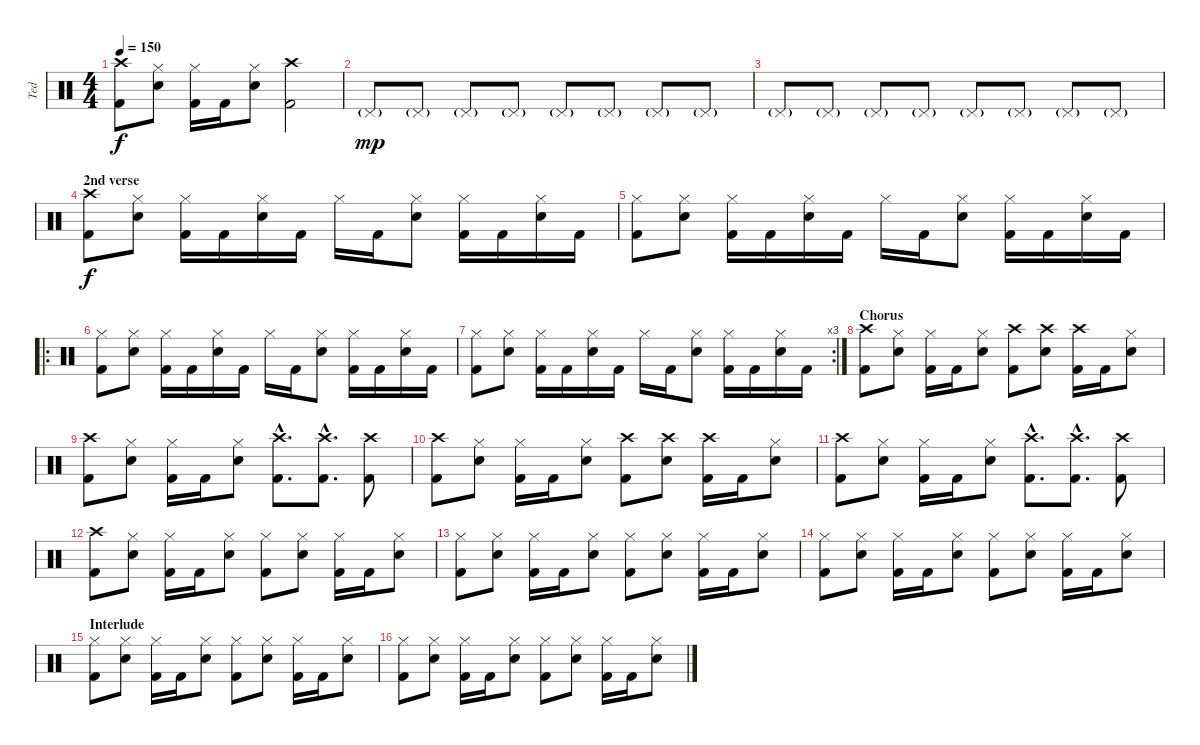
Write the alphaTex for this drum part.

\track ("Ted" "Ted") {instrument percussion}
\staff {score}
\articulation defaults
\ts (4 4)
\tempo 150
\clef neutral
\ks c
("Crash high (hit)" "Kick (hit) 2").8{dy f} ("Hi-Hat (closed)" "Electric Snare (hit)").8 ("Hi-Hat (closed)" "Kick (hit) 2").16 "Kick (hit) 2".16 ("Hi-Hat (closed)" "Electric Snare (hit)").8 ("Crash high (hit)" "Kick (hit) 2").2 |
"Pedal Hi-Hat (hit)"{g}.8{dy mp} "Pedal Hi-Hat (hit)"{g}.8 "Pedal Hi-Hat (hit)"{g}.8 "Pedal Hi-Hat (hit)"{g}.8 "Pedal Hi-Hat (hit)"{g}.8 "Pedal Hi-Hat (hit)"{g}.8 "Pedal Hi-Hat (hit)"{g}.8 "Pedal Hi-Hat (hit)"{g}.8 |
"Pedal Hi-Hat (hit)"{g}.8 "Pedal Hi-Hat (hit)"{g}.8 "Pedal Hi-Hat (hit)"{g}.8 "Pedal Hi-Hat (hit)"{g}.8 "Pedal Hi-Hat (hit)"{g}.8 "Pedal Hi-Hat (hit)"{g}.8 "Pedal Hi-Hat (hit)"{g}.8 "Pedal Hi-Hat (hit)"{g}.8 |
\section ("" "2nd verse")
("Crash high (hit)" "Kick (hit) 2").8{dy f} ("Hi-Hat (closed)" "Electric Snare (hit)").8 ("Hi-Hat (closed)" "Kick (hit) 2").16 "Kick (hit) 2".16 ("Hi-Hat (closed)" "Electric Snare (hit)").16 "Kick (hit) 2".16 "Hi-Hat (closed)".16 "Kick (hit) 2".16 ("Hi-Hat (closed)" "Electric Snare (hit)").8 ("Hi-Hat (closed)" "Kick (hit) 2").16 "Kick (hit) 2".16 ("Hi-Hat (closed)" "Electric Snare (hit)").16 "Kick (hit) 2".16 |
("Hi-Hat (closed)" "Kick (hit) 2").8 ("Hi-Hat (closed)" "Electric Snare (hit)").8 ("Hi-Hat (closed)" "Kick (hit) 2").16 "Kick (hit) 2".16 ("Hi-Hat (closed)" "Electric Snare (hit)").16 "Kick (hit) 2".16 "Hi-Hat (closed)".16 "Kick (hit) 2".16 ("Hi-Hat (closed)" "Electric Snare (hit)").8 ("Hi-Hat (closed)" "Kick (hit) 2").16 "Kick (hit) 2".16 ("Hi-Hat (closed)" "Electric Snare (hit)").16 "Kick (hit) 2".16 |
\ro
("Hi-Hat (closed)" "Kick (hit) 2").8 ("Hi-Hat (closed)" "Electric Snare (hit)").8 ("Hi-Hat (closed)" "Kick (hit) 2").16 "Kick (hit) 2".16 ("Hi-Hat (closed)" "Electric Snare (hit)").16 "Kick (hit) 2".16 "Hi-Hat (closed)".16 "Kick (hit) 2".16 ("Hi-Hat (closed)" "Electric Snare (hit)").8 ("Hi-Hat (closed)" "Kick (hit) 2").16 "Kick (hit) 2".16 ("Hi-Hat (closed)" "Electric Snare (hit)").16 "Kick (hit) 2".16 |
\rc 3
("Hi-Hat (closed)" "Kick (hit) 2").8 ("Hi-Hat (closed)" "Electric Snare (hit)").8 ("Hi-Hat (closed)" "Kick (hit) 2").16 "Kick (hit) 2".16 ("Hi-Hat (closed)" "Electric Snare (hit)").16 "Kick (hit) 2".16 "Hi-Hat (closed)".16 "Kick (hit) 2".16 ("Hi-Hat (closed)" "Electric Snare (hit)").8 ("Hi-Hat (closed)" "Kick (hit) 2").16 "Kick (hit) 2".16 ("Hi-Hat (closed)" "Electric Snare (hit)").16 "Kick (hit) 2".16 |
\section ("" "Chorus")
("Crash high (hit)" "Kick (hit) 2").8 ("Hi-Hat (closed)" "Electric Snare (hit)").8 ("Hi-Hat (closed)" "Kick (hit) 2").16 "Kick (hit) 2".16 ("Hi-Hat (closed)" "Electric Snare (hit)").8 ("Crash high (hit)" "Kick (hit) 2").8 ("Crash high (hit)" "Electric Snare (hit)").8 ("Crash high (hit)" "Kick (hit) 2").16 "Kick (hit) 2".16 ("Hi-Hat (closed)" "Electric Snare (hit)").8 |
("Crash high (hit)" "Kick (hit) 2").8 ("Hi-Hat (closed)" "Electric Snare (hit)").8 ("Hi-Hat (closed)" "Kick (hit) 2").16 "Kick (hit) 2".16 ("Hi-Hat (closed)" "Electric Snare (hit)").8 ("Crash high (hit)"{hac} "Kick (hit) 2"{hac}).8{d} ("Crash high (hit)"{hac} "Kick (hit) 2"{hac}).8{d} ("Crash high (hit)" "Kick (hit) 2").8 |
("Crash high (hit)" "Kick (hit) 2").8 ("Hi-Hat (closed)" "Electric Snare (hit)").8 ("Hi-Hat (closed)" "Kick (hit) 2").16 "Kick (hit) 2".16 ("Hi-Hat (closed)" "Electric Snare (hit)").8 ("Crash high (hit)" "Kick (hit) 2").8 ("Crash high (hit)" "Electric Snare (hit)").8 ("Crash high (hit)" "Kick (hit) 2").16 "Kick (hit) 2".16 ("Hi-Hat (closed)" "Electric Snare (hit)").8 |
("Crash high (hit)" "Kick (hit) 2").8 ("Hi-Hat (closed)" "Electric Snare (hit)").8 ("Hi-Hat (closed)" "Kick (hit) 2").16 "Kick (hit) 2".16 ("Hi-Hat (closed)" "Electric Snare (hit)").8 ("Crash high (hit)"{hac} "Kick (hit) 2"{hac}).8{d} ("Crash high (hit)"{hac} "Kick (hit) 2"{hac}).8{d} ("Crash high (hit)" "Kick (hit) 2").8 |
("Crash high (hit)" "Kick (hit) 2").8 ("Hi-Hat (closed)" "Electric Snare (hit)").8 ("Hi-Hat (closed)" "Kick (hit) 2").16 "Kick (hit) 2".16 ("Hi-Hat (closed)" "Electric Snare (hit)").8 ("Hi-Hat (closed)" "Kick (hit) 2").8 ("Hi-Hat (closed)" "Electric Snare (hit)").8 ("Hi-Hat (closed)" "Kick (hit) 2").16 "Kick (hit) 2".16 ("Hi-Hat (closed)" "Electric Snare (hit)").8 |
("Hi-Hat (closed)" "Kick (hit) 2").8 ("Hi-Hat (closed)" "Electric Snare (hit)").8 ("Hi-Hat (closed)" "Kick (hit) 2").16 "Kick (hit) 2".16 ("Hi-Hat (closed)" "Electric Snare (hit)").8 ("Hi-Hat (closed)" "Kick (hit) 2").8 ("Hi-Hat (closed)" "Electric Snare (hit)").8 ("Hi-Hat (closed)" "Kick (hit) 2").16 "Kick (hit) 2".16 ("Hi-Hat (closed)" "Electric Snare (hit)").8 |
("Hi-Hat (closed)" "Kick (hit) 2").8 ("Hi-Hat (closed)" "Electric Snare (hit)").8 ("Hi-Hat (closed)" "Kick (hit) 2").16 "Kick (hit) 2".16 ("Hi-Hat (closed)" "Electric Snare (hit)").8 ("Hi-Hat (closed)" "Kick (hit) 2").8 ("Hi-Hat (closed)" "Electric Snare (hit)").8 ("Hi-Hat (closed)" "Kick (hit) 2").16 "Kick (hit) 2".16 ("Hi-Hat (closed)" "Electric Snare (hit)").8 |
\section ("" "Interlude")
("Hi-Hat (closed)" "Kick (hit) 2").8 ("Hi-Hat (closed)" "Electric Snare (hit)").8 ("Hi-Hat (closed)" "Kick (hit) 2").16 "Kick (hit) 2".16 ("Hi-Hat (closed)" "Electric Snare (hit)").8 ("Hi-Hat (closed)" "Kick (hit) 2").8 ("Hi-Hat (closed)" "Electric Snare (hit)").8 ("Hi-Hat (closed)" "Kick (hit) 2").16 "Kick (hit) 2".16 ("Hi-Hat (closed)" "Electric Snare (hit)").8 |
("Hi-Hat (closed)" "Kick (hit) 2").8 ("Hi-Hat (closed)" "Electric Snare (hit)").8 ("Hi-Hat (closed)" "Kick (hit) 2").16 "Kick (hit) 2".16 ("Hi-Hat (closed)" "Electric Snare (hit)").8 ("Hi-Hat (closed)" "Kick (hit) 2").8 ("Hi-Hat (closed)" "Electric Snare (hit)").8 ("Hi-Hat (closed)" "Kick (hit) 2").16 "Kick (hit) 2".16 ("Hi-Hat (closed)" "Electric Snare (hit)").8
